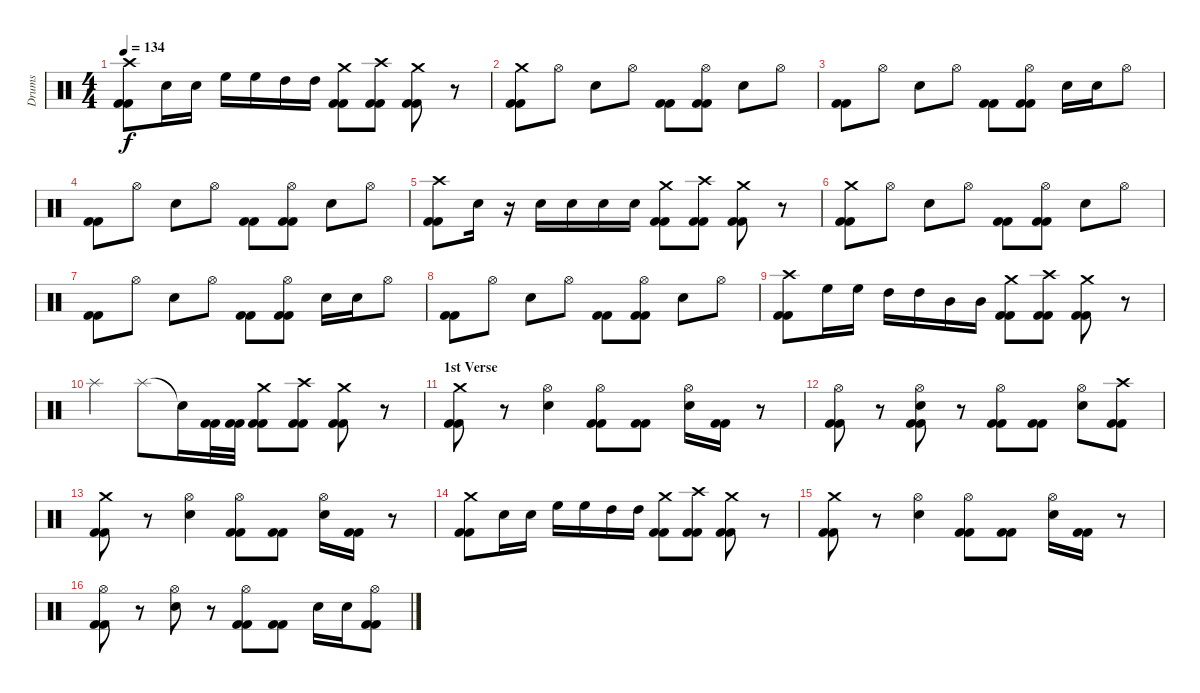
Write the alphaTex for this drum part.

\track ("Drums" "Drums") {instrument percussion}
\staff {score}
\articulation defaults
\ts (4 4)
\tempo 134
\clef neutral
\ks c
("Crash high (hit)" "Kick (hit) 2" "Kick (hit) 2").8{dy f} "Electric Snare (hit)".16 "Electric Snare (hit)".16 "High Floor Tom (hit)".16 "High Floor Tom (hit)".16 "High Tom (hit)".16 "High Tom (hit)".16 ("Crash medium (hit)" "Kick (hit) 2" "Kick (hit) 2").8 ("Crash high (hit)" "Kick (hit) 2" "Kick (hit) 2").8 ("Crash medium (hit)" "Kick (hit) 2" "Kick (hit) 2").8 r.8 |
("Crash medium (hit)" "Kick (hit) 2" "Kick (hit) 2").8 "Hi-Hat (open)".8 "Electric Snare (hit)".8 "Hi-Hat (open)".8 ("Kick (hit) 2" "Kick (hit) 2").8 ("Hi-Hat (open)" "Kick (hit) 2" "Kick (hit) 2").8 "Electric Snare (hit)".8 "Hi-Hat (open)".8 |
("Kick (hit) 2" "Kick (hit) 2").8 "Hi-Hat (open)".8 "Electric Snare (hit)".8 "Hi-Hat (open)".8 ("Kick (hit) 2" "Kick (hit) 2").8 ("Hi-Hat (open)" "Kick (hit) 2" "Kick (hit) 2").8 "Electric Snare (hit)".16 "Electric Snare (hit)".16 "Hi-Hat (open)".8 |
("Kick (hit) 2" "Kick (hit) 2").8 "Hi-Hat (open)".8 "Electric Snare (hit)".8 "Hi-Hat (open)".8 ("Kick (hit) 2" "Kick (hit) 2").8 ("Hi-Hat (open)" "Kick (hit) 2" "Kick (hit) 2").8 "Electric Snare (hit)".8 "Hi-Hat (open)".8 |
("Crash high (hit)" "Kick (hit) 2" "Kick (hit) 2").8 "Electric Snare (hit)".16 r.16 "Electric Snare (hit)".16 "Electric Snare (hit)".16 "Electric Snare (hit)".16 "Electric Snare (hit)".16 ("Crash medium (hit)" "Kick (hit) 2" "Kick (hit) 2").8 ("Crash high (hit)" "Kick (hit) 2" "Kick (hit) 2").8 ("Crash medium (hit)" "Kick (hit) 2" "Kick (hit) 2").8 r.8 |
("Crash medium (hit)" "Kick (hit) 2" "Kick (hit) 2").8 "Hi-Hat (open)".8 "Electric Snare (hit)".8 "Hi-Hat (open)".8 ("Kick (hit) 2" "Kick (hit) 2").8 ("Hi-Hat (open)" "Kick (hit) 2" "Kick (hit) 2").8 "Electric Snare (hit)".8 "Hi-Hat (open)".8 |
("Kick (hit) 2" "Kick (hit) 2").8 "Hi-Hat (open)".8 "Electric Snare (hit)".8 "Hi-Hat (open)".8 ("Kick (hit) 2" "Kick (hit) 2").8 ("Hi-Hat (open)" "Kick (hit) 2" "Kick (hit) 2").8 "Electric Snare (hit)".16 "Electric Snare (hit)".16 "Hi-Hat (open)".8 |
("Kick (hit) 2" "Kick (hit) 2").8 "Hi-Hat (open)".8 "Electric Snare (hit)".8 "Hi-Hat (open)".8 ("Kick (hit) 2" "Kick (hit) 2").8 ("Hi-Hat (open)" "Kick (hit) 2" "Kick (hit) 2").8 "Electric Snare (hit)".8 "Hi-Hat (open)".8 |
("Crash high (hit)" "Kick (hit) 2" "Kick (hit) 2").8 "High Floor Tom (hit)".16 "High Floor Tom (hit)".16 "High Tom (hit)".16 "High Tom (hit)".16 "Mid Tom (hit)".16 "Mid Tom (hit)".16 ("Crash medium (hit)" "Kick (hit) 2" "Kick (hit) 2").8 ("Crash high (hit)" "Kick (hit) 2" "Kick (hit) 2").8 ("Crash medium (hit)" "Kick (hit) 2" "Kick (hit) 2").8 r.8 |
"Splash (hit)".4 "Splash (hit)".8 "Snare (hit)"{t}.16 ("Kick (hit) 2" "Kick (hit) 2").32 ("Kick (hit) 2" "Kick (hit) 2").32 ("Crash medium (hit)" "Kick (hit) 2" "Kick (hit) 2").8 ("Crash high (hit)" "Kick (hit) 2" "Kick (hit) 2").8 ("Crash medium (hit)" "Kick (hit) 2" "Kick (hit) 2").8 r.8 |
\section ("" "1st Verse")
("Crash medium (hit)" "Kick (hit) 2" "Kick (hit) 2").8 r.8 ("Hi-Hat (open)" "Electric Snare (hit)").4 ("Hi-Hat (open)" "Kick (hit) 2" "Kick (hit) 2").8 ("Kick (hit) 2" "Kick (hit) 2").8 ("Hi-Hat (open)" "Electric Snare (hit)").16 ("Kick (hit) 2" "Kick (hit) 2").16 r.8 |
("Hi-Hat (open)" "Kick (hit) 2" "Kick (hit) 2").8 r.8 ("Hi-Hat (open)" "Electric Snare (hit)" "Kick (hit) 2" "Kick (hit) 2").8 r.8 ("Hi-Hat (open)" "Kick (hit) 2" "Kick (hit) 2").8 ("Kick (hit) 2" "Kick (hit) 2").8 ("Hi-Hat (open)" "Electric Snare (hit)").8 ("Crash high (hit)" "Kick (hit) 2" "Kick (hit) 2").8 |
("Crash medium (hit)" "Kick (hit) 2" "Kick (hit) 2").8 r.8 ("Hi-Hat (open)" "Electric Snare (hit)").4 ("Hi-Hat (open)" "Kick (hit) 2" "Kick (hit) 2").8 ("Kick (hit) 2" "Kick (hit) 2").8 ("Hi-Hat (open)" "Electric Snare (hit)").16 ("Kick (hit) 2" "Kick (hit) 2").16 r.8 |
("Crash medium (hit)" "Kick (hit) 2" "Kick (hit) 2").8 "Electric Snare (hit)".16 "Electric Snare (hit)".16 "High Floor Tom (hit)".16 "High Floor Tom (hit)".16 "High Tom (hit)".16 "High Tom (hit)".16 ("Crash medium (hit)" "Kick (hit) 2" "Kick (hit) 2").8 ("Crash high (hit)" "Kick (hit) 2" "Kick (hit) 2").8 ("Crash medium (hit)" "Kick (hit) 2" "Kick (hit) 2").8 r.8 |
("Crash medium (hit)" "Kick (hit) 2" "Kick (hit) 2").8 r.8 ("Hi-Hat (open)" "Electric Snare (hit)").4 ("Hi-Hat (open)" "Kick (hit) 2" "Kick (hit) 2").8 ("Kick (hit) 2" "Kick (hit) 2").8 ("Hi-Hat (open)" "Electric Snare (hit)").16 ("Kick (hit) 2" "Kick (hit) 2").16 r.8 |
("Hi-Hat (open)" "Kick (hit) 2" "Kick (hit) 2").8 r.8 ("Hi-Hat (open)" "Electric Snare (hit)").8 r.8 ("Hi-Hat (open)" "Kick (hit) 2" "Kick (hit) 2").8 ("Kick (hit) 2" "Kick (hit) 2").8 "Electric Snare (hit)".16 "Electric Snare (hit)".16 ("Hi-Hat (open)" "Kick (hit) 2" "Kick (hit) 2").8
